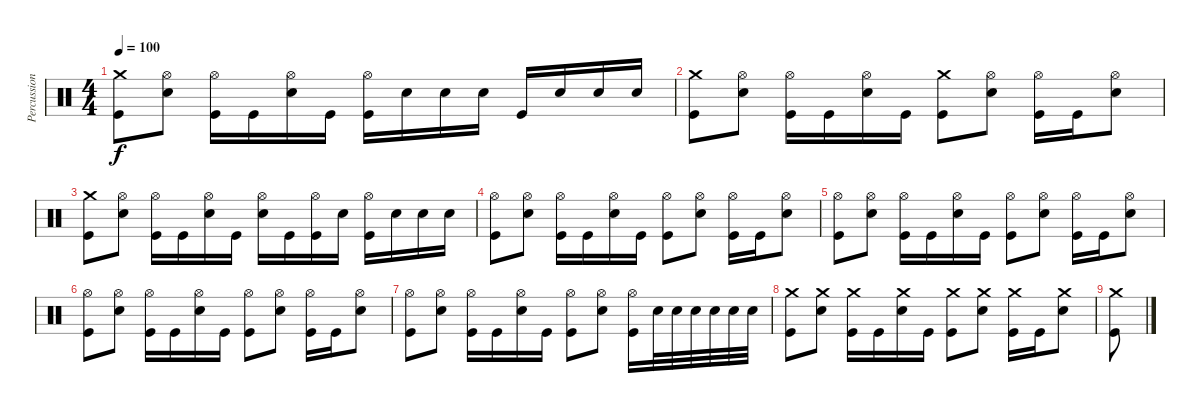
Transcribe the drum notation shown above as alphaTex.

\track ("Percussion" "Percussion") {instrument percussion}
\staff {score}
\articulation defaults
\ts (4 4)
\tempo 100
\clef neutral
\ks c
("Crash medium (hit)" "Kick (hit)").8{dy f} ("Hi-Hat (open)" "Snare (hit) 2").8 ("Hi-Hat (open)" "Kick (hit)").16 "Kick (hit)".16 ("Hi-Hat (open)" "Snare (hit) 2").16 "Kick (hit)".16 ("Hi-Hat (open)" "Kick (hit)").16 "Snare (hit) 2".16 "Snare (hit) 2".16 "Snare (hit) 2".16 "Kick (hit)".16 "Snare (hit) 2".16 "Snare (hit) 2".16 "Snare (hit) 2".16 |
("Crash medium (hit)" "Kick (hit)").8 ("Hi-Hat (open)" "Snare (hit) 2").8 ("Hi-Hat (open)" "Kick (hit)").16 "Kick (hit)".16 ("Hi-Hat (open)" "Snare (hit) 2").16 "Kick (hit)".16 ("Crash medium (hit)" "Kick (hit)").8 ("Hi-Hat (open)" "Snare (hit) 2").8 ("Hi-Hat (open)" "Kick (hit)").16 "Kick (hit)".16 ("Hi-Hat (open)" "Snare (hit) 2").8 |
("Crash medium (hit)" "Kick (hit)").8 ("Hi-Hat (open)" "Snare (hit) 2").8 ("Hi-Hat (open)" "Kick (hit)").16 "Kick (hit)".16 ("Hi-Hat (open)" "Snare (hit) 2").16 "Kick (hit)".16 ("Hi-Hat (open)" "Snare (hit) 2").16 "Kick (hit)".16 ("Hi-Hat (open)" "Kick (hit)").16 "Snare (hit) 2".16 ("Hi-Hat (open)" "Kick (hit)").16 "Snare (hit) 2".16 "Snare (hit) 2".16 "Snare (hit) 2".16 |
("Hi-Hat (open)" "Kick (hit)").8 ("Hi-Hat (open)" "Snare (hit) 2").8 ("Hi-Hat (open)" "Kick (hit)").16 "Kick (hit)".16 ("Hi-Hat (open)" "Snare (hit) 2").16 "Kick (hit)".16 ("Hi-Hat (open)" "Kick (hit)").8 ("Hi-Hat (open)" "Snare (hit) 2").8 ("Hi-Hat (open)" "Kick (hit)").16 "Kick (hit)".16 ("Hi-Hat (open)" "Snare (hit) 2").8 |
("Hi-Hat (open)" "Kick (hit)").8 ("Hi-Hat (open)" "Snare (hit) 2").8 ("Hi-Hat (open)" "Kick (hit)").16 "Kick (hit)".16 ("Hi-Hat (open)" "Snare (hit) 2").16 "Kick (hit)".16 ("Hi-Hat (open)" "Kick (hit)").8 ("Hi-Hat (open)" "Snare (hit) 2").8 ("Hi-Hat (open)" "Kick (hit)").16 "Kick (hit)".16 ("Hi-Hat (open)" "Snare (hit) 2").8 |
("Hi-Hat (open)" "Kick (hit)").8 ("Hi-Hat (open)" "Snare (hit) 2").8 ("Hi-Hat (open)" "Kick (hit)").16 "Kick (hit)".16 ("Hi-Hat (open)" "Snare (hit) 2").16 "Kick (hit)".16 ("Hi-Hat (open)" "Kick (hit)").8 ("Hi-Hat (open)" "Snare (hit) 2").8 ("Hi-Hat (open)" "Kick (hit)").16 "Kick (hit)".16 ("Hi-Hat (open)" "Snare (hit) 2").8 |
("Hi-Hat (open)" "Kick (hit)").8 ("Hi-Hat (open)" "Snare (hit) 2").8 ("Hi-Hat (open)" "Kick (hit)").16 "Kick (hit)".16 ("Hi-Hat (open)" "Snare (hit) 2").16 "Kick (hit)".16 ("Hi-Hat (open)" "Kick (hit)").8 ("Hi-Hat (open)" "Snare (hit) 2").8 ("Hi-Hat (open)" "Kick (hit)").16 "Snare (hit) 2".32 "Snare (hit) 2".32 "Snare (hit) 2".32 "Snare (hit) 2".32 "Snare (hit) 2".32 "Snare (hit) 2".32 |
("Crash medium (hit)" "Kick (hit)").8 ("Crash medium (hit)" "Snare (hit) 2").8 ("Crash medium (hit)" "Kick (hit)").16 "Kick (hit)".16 ("Crash medium (hit)" "Snare (hit) 2").16 "Kick (hit)".16 ("Crash medium (hit)" "Kick (hit)").8 ("Crash medium (hit)" "Snare (hit) 2").8 ("Crash medium (hit)" "Kick (hit)").16 "Kick (hit)".16 ("Crash medium (hit)" "Snare (hit) 2").8 |
("Crash medium (hit)" "Kick (hit)").8
